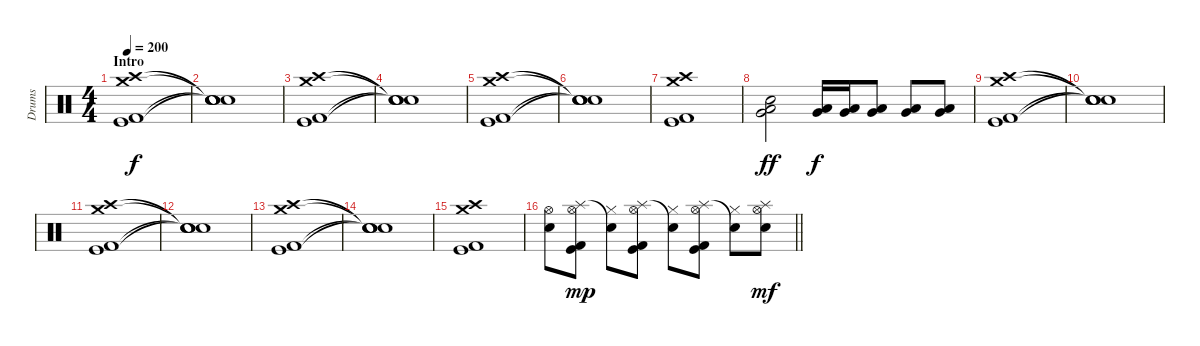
\track ("Drums" "Drums") {instrument percussion}
\staff {score}
\articulation defaults
\ts (4 4)
\section ("" "Intro")
\tempo 200
\clef neutral
\ks c
("Crash high (hit)" "Crash medium (hit)" "Kick (hit)" "Kick (hit) 2").1{dy f} |
("Snare (hit)"{t} "Snare (hit)"{t} "Snare (hit)"{t} "Snare (hit)"{t}).1 |
("Crash high (hit)" "Crash medium (hit)" "Kick (hit)" "Kick (hit) 2").1 |
("Snare (hit)"{t} "Snare (hit)"{t} "Snare (hit)"{t} "Snare (hit)"{t}).1 |
("Crash high (hit)" "Crash medium (hit)" "Kick (hit)" "Kick (hit) 2").1 |
("Snare (hit)"{t} "Snare (hit)"{t} "Snare (hit)"{t} "Snare (hit)"{t}).1 |
("Crash high (hit)" "Crash medium (hit)" "Kick (hit)" "Kick (hit) 2").1 |
("Snare (hit) 2" "Very Low Tom (hit)" "Low Floor Tom (hit)").2{dy ff} ("Very Low Tom (hit)" "Low Floor Tom (hit)").16{dy f} ("Very Low Tom (hit)" "Low Floor Tom (hit)").16 ("Very Low Tom (hit)" "Low Floor Tom (hit)").8 ("Very Low Tom (hit)" "Low Floor Tom (hit)").8 ("Very Low Tom (hit)" "Low Floor Tom (hit)").8 |
("Crash high (hit)" "Crash medium (hit)" "Kick (hit)" "Kick (hit) 2").1 |
("Snare (hit)"{t} "Snare (hit)"{t} "Snare (hit)"{t} "Snare (hit)"{t}).1 |
("Crash high (hit)" "Crash medium (hit)" "Kick (hit)" "Kick (hit) 2").1 |
("Snare (hit)"{t} "Snare (hit)"{t} "Snare (hit)"{t} "Snare (hit)"{t}).1 |
("Crash high (hit)" "Crash medium (hit)" "Kick (hit)" "Kick (hit) 2").1 |
("Snare (hit)"{t} "Snare (hit)"{t} "Snare (hit)"{t} "Snare (hit)"{t}).1 |
("Crash high (hit)" "Crash medium (hit)" "Kick (hit)" "Kick (hit) 2").1 |
\barLineRight lightlight
("Hi-Hat (open)" "Snare (hit) 2").8 ("Splash (hit)" "Hi-Hat (open)" "Kick (hit)" "Kick (hit) 2").8{dy mp} ("Snare (hit)"{t} "Hi-Hat (closed)").8 ("Splash (hit)" "Hi-Hat (open)" "Kick (hit)" "Kick (hit) 2").8 ("Snare (hit)"{t} "Hi-Hat (closed)").8 ("Splash (hit)" "Hi-Hat (open)" "Kick (hit)" "Kick (hit) 2").8 ("Snare (hit)"{t} "Hi-Hat (closed)").8 ("Splash (hit)" "Hi-Hat (open)" "Snare (hit) 2").8{dy mf}
